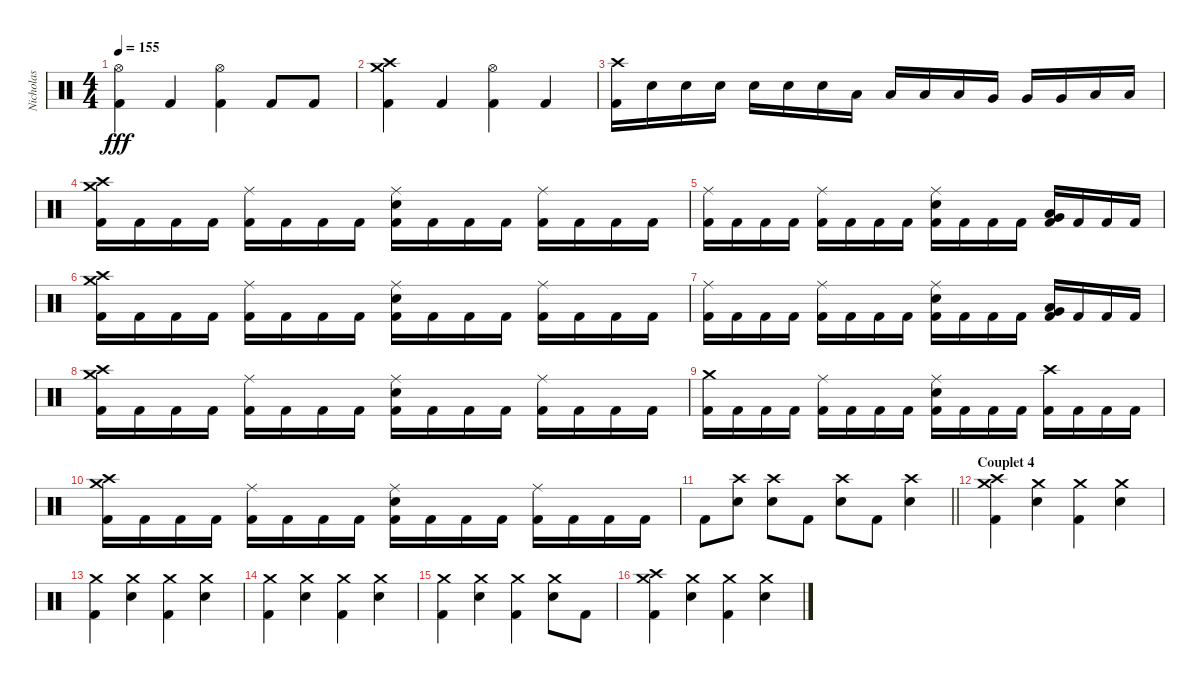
\track ("Nicholas" "Nicholas") {instrument percussion}
\staff {score}
\articulation defaults
\ts (4 4)
\tempo 155
\clef neutral
\ks c
("Hi-Hat (open)" "Kick (hit) 2").4{dy fff} "Kick (hit) 2".4 ("Hi-Hat (open)" "Kick (hit) 2").4 "Kick (hit) 2".8 "Kick (hit) 2".8 |
("Crash medium (hit)" "Crash high (hit)" "Kick (hit) 2").4 "Kick (hit) 2".4 ("Hi-Hat (open)" "Kick (hit) 2").4 "Kick (hit) 2".4 |
("Crash high (hit)" "Kick (hit) 2").16 "Electric Snare (hit)".16 "Electric Snare (hit)".16 "Electric Snare (hit)".16 "Electric Snare (hit)".16 "Electric Snare (hit)".16 "Electric Snare (hit)".16 "Low Tom (hit)".16 "Low Tom (hit)".16 "Low Tom (hit)".16 "Low Tom (hit)".16 "Very Low Tom (hit)".16 "Very Low Tom (hit)".16 "Very Low Tom (hit)".16 "Low Floor Tom (hit)".16 "Low Floor Tom (hit)".16 |
("Crash medium (hit)" "Crash high (hit)" "Kick (hit) 2").16 "Kick (hit) 2".16 "Kick (hit) 2".16 "Kick (hit) 2".16 ("Ride (middle)" "Kick (hit) 2").16 "Kick (hit) 2".16 "Kick (hit) 2".16 "Kick (hit) 2".16 ("Ride (middle)" "Electric Snare (hit)" "Kick (hit) 2").16 "Kick (hit) 2".16 "Kick (hit) 2".16 "Kick (hit) 2".16 ("Ride (middle)" "Kick (hit) 2").16 "Kick (hit) 2".16 "Kick (hit) 2".16 "Kick (hit) 2".16 |
("Ride (middle)" "Kick (hit) 2").16 "Kick (hit) 2".16 "Kick (hit) 2".16 "Kick (hit) 2".16 ("Ride (middle)" "Kick (hit) 2").16 "Kick (hit) 2".16 "Kick (hit) 2".16 "Kick (hit) 2".16 ("Ride (middle)" "Electric Snare (hit)" "Kick (hit) 2").16 "Kick (hit) 2".16 "Kick (hit) 2".16 "Kick (hit) 2".16 ("Low Tom (hit)" "Very Low Tom (hit)" "Kick (hit) 2").16 "Kick (hit) 2".16 "Kick (hit) 2".16 "Kick (hit) 2".16 |
("Crash medium (hit)" "Crash high (hit)" "Kick (hit) 2").16 "Kick (hit) 2".16 "Kick (hit) 2".16 "Kick (hit) 2".16 ("Ride (middle)" "Kick (hit) 2").16 "Kick (hit) 2".16 "Kick (hit) 2".16 "Kick (hit) 2".16 ("Ride (middle)" "Electric Snare (hit)" "Kick (hit) 2").16 "Kick (hit) 2".16 "Kick (hit) 2".16 "Kick (hit) 2".16 ("Ride (middle)" "Kick (hit) 2").16 "Kick (hit) 2".16 "Kick (hit) 2".16 "Kick (hit) 2".16 |
("Ride (middle)" "Kick (hit) 2").16 "Kick (hit) 2".16 "Kick (hit) 2".16 "Kick (hit) 2".16 ("Ride (middle)" "Kick (hit) 2").16 "Kick (hit) 2".16 "Kick (hit) 2".16 "Kick (hit) 2".16 ("Ride (middle)" "Electric Snare (hit)" "Kick (hit) 2").16 "Kick (hit) 2".16 "Kick (hit) 2".16 "Kick (hit) 2".16 ("Low Tom (hit)" "Very Low Tom (hit)" "Kick (hit) 2").16 "Kick (hit) 2".16 "Kick (hit) 2".16 "Kick (hit) 2".16 |
("Crash medium (hit)" "Crash high (hit)" "Kick (hit) 2").16 "Kick (hit) 2".16 "Kick (hit) 2".16 "Kick (hit) 2".16 ("Ride (middle)" "Kick (hit) 2").16 "Kick (hit) 2".16 "Kick (hit) 2".16 "Kick (hit) 2".16 ("Ride (middle)" "Electric Snare (hit)" "Kick (hit) 2").16 "Kick (hit) 2".16 "Kick (hit) 2".16 "Kick (hit) 2".16 ("Ride (middle)" "Kick (hit) 2").16 "Kick (hit) 2".16 "Kick (hit) 2".16 "Kick (hit) 2".16 |
("Crash medium (hit)" "Kick (hit) 2").16 "Kick (hit) 2".16 "Kick (hit) 2".16 "Kick (hit) 2".16 ("Ride (middle)" "Kick (hit) 2").16 "Kick (hit) 2".16 "Kick (hit) 2".16 "Kick (hit) 2".16 ("Ride (middle)" "Electric Snare (hit)" "Kick (hit) 2").16 "Kick (hit) 2".16 "Kick (hit) 2".16 "Kick (hit) 2".16 ("Crash high (hit)" "Kick (hit) 2").16 "Kick (hit) 2".16 "Kick (hit) 2".16 "Kick (hit) 2".16 |
("Crash medium (hit)" "Crash high (hit)" "Kick (hit) 2").16 "Kick (hit) 2".16 "Kick (hit) 2".16 "Kick (hit) 2".16 ("Ride (middle)" "Kick (hit) 2").16 "Kick (hit) 2".16 "Kick (hit) 2".16 "Kick (hit) 2".16 ("Ride (middle)" "Electric Snare (hit)" "Kick (hit) 2").16 "Kick (hit) 2".16 "Kick (hit) 2".16 "Kick (hit) 2".16 ("Ride (middle)" "Kick (hit) 2").16 "Kick (hit) 2".16 "Kick (hit) 2".16 "Kick (hit) 2".16 |
\barLineRight lightlight "Kick (hit) 2".8
("Crash high (hit)" "Electric Snare (hit)").8 ("Crash high (hit)" "Electric Snare (hit)").8 "Kick (hit) 2".8 ("Crash high (hit)" "Electric Snare (hit)").8 "Kick (hit) 2".8 ("Crash high (hit)" "Electric Snare (hit)").4 |
\section ("" "Couplet 4")
("Crash medium (hit)" "Crash high (hit)" "Kick (hit) 2").4{volume 13} ("Crash medium (hit)" "Electric Snare (hit)").4 ("Crash medium (hit)" "Kick (hit) 2").4 ("Crash medium (hit)" "Electric Snare (hit)").4 |
("Crash medium (hit)" "Kick (hit) 2").4 ("Crash medium (hit)" "Electric Snare (hit)").4 ("Crash medium (hit)" "Kick (hit) 2").4 ("Crash medium (hit)" "Electric Snare (hit)").4 |
("Crash medium (hit)" "Kick (hit) 2").4 ("Crash medium (hit)" "Electric Snare (hit)").4 ("Crash medium (hit)" "Kick (hit) 2").4 ("Crash medium (hit)" "Electric Snare (hit)").4 |
("Crash medium (hit)" "Kick (hit) 2").4 ("Crash medium (hit)" "Electric Snare (hit)").4 ("Crash medium (hit)" "Kick (hit) 2").4 ("Crash medium (hit)" "Electric Snare (hit)").8 "Kick (hit) 2".8 |
("Crash medium (hit)" "Crash high (hit)" "Kick (hit) 2").4 ("Crash medium (hit)" "Electric Snare (hit)").4 ("Crash medium (hit)" "Kick (hit) 2").4 ("Crash medium (hit)" "Electric Snare (hit)").4
